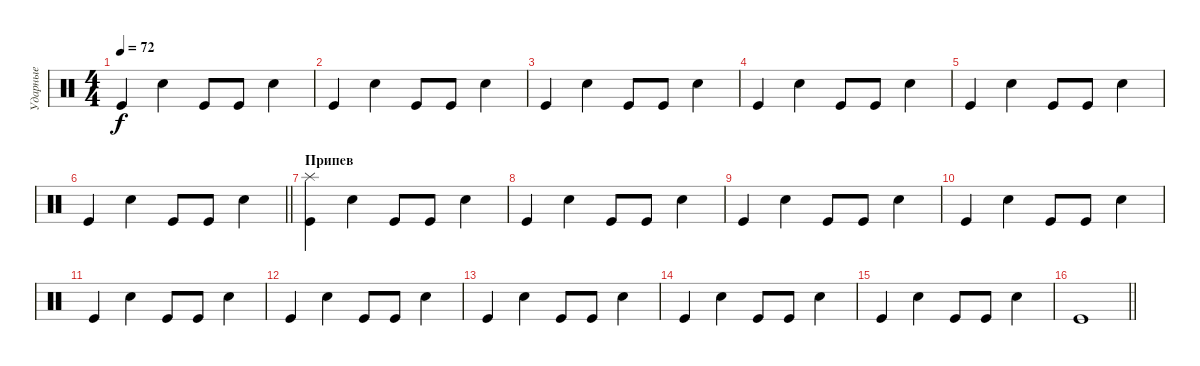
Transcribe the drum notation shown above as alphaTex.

\track ("Ударные" "Ударные") {instrument percussion}
\staff {score}
\articulation defaults
\ts (4 4)
\tempo 72
\clef neutral
\ks c "Kick (hit)".4{dy f} "Snare (hit) 2".4 "Kick (hit)".8 "Kick (hit)".8 "Snare (hit) 2".4
|
"Kick (hit)".4 "Snare (hit) 2".4 "Kick (hit)".8 "Kick (hit)".8 "Snare (hit) 2".4 |
"Kick (hit)".4 "Snare (hit) 2".4 "Kick (hit)".8 "Kick (hit)".8 "Snare (hit) 2".4 |
"Kick (hit)".4 "Snare (hit) 2".4 "Kick (hit)".8 "Kick (hit)".8 "Snare (hit) 2".4 |
"Kick (hit)".4 "Snare (hit) 2".4 "Kick (hit)".8 "Kick (hit)".8 "Snare (hit) 2".4 |
\barLineRight lightlight "Kick (hit)".4 "Snare (hit) 2".4 "Kick (hit)".8 "Kick (hit)".8 "Snare (hit) 2".4
|
\section ("" "Припев")
("Splash (hit)" "Kick (hit)").4 "Snare (hit) 2".4 "Kick (hit)".8 "Kick (hit)".8 "Snare (hit) 2".4 |
"Kick (hit)".4 "Snare (hit) 2".4 "Kick (hit)".8 "Kick (hit)".8 "Snare (hit) 2".4 |
"Kick (hit)".4 "Snare (hit) 2".4 "Kick (hit)".8 "Kick (hit)".8 "Snare (hit) 2".4 |
"Kick (hit)".4 "Snare (hit) 2".4 "Kick (hit)".8 "Kick (hit)".8 "Snare (hit) 2".4 |
"Kick (hit)".4 "Snare (hit) 2".4 "Kick (hit)".8 "Kick (hit)".8 "Snare (hit) 2".4 |
"Kick (hit)".4 "Snare (hit) 2".4 "Kick (hit)".8 "Kick (hit)".8 "Snare (hit) 2".4 |
"Kick (hit)".4 "Snare (hit) 2".4 "Kick (hit)".8 "Kick (hit)".8 "Snare (hit) 2".4 |
"Kick (hit)".4 "Snare (hit) 2".4 "Kick (hit)".8 "Kick (hit)".8 "Snare (hit) 2".4 |
"Kick (hit)".4 "Snare (hit) 2".4 "Kick (hit)".8 "Kick (hit)".8 "Snare (hit) 2".4 |
\barLineRight lightlight "Kick (hit)".1
